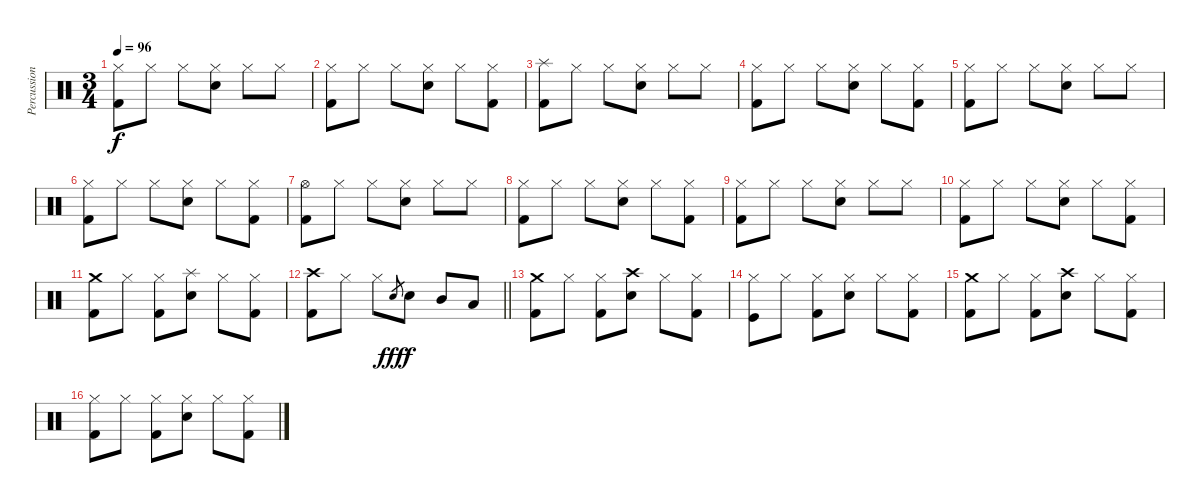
\track ("Percussion" "Percussion") {instrument percussion}
\staff {score}
\articulation defaults
\ts (3 4)
\tempo 96
\clef neutral
\ks c
("Hi-Hat (closed)" "Kick (hit) 2").8{dy f} "Hi-Hat (closed)".8 "Hi-Hat (closed)".8 ("Hi-Hat (closed)" "Snare (hit) 2").8 "Hi-Hat (closed)".8 "Hi-Hat (closed)".8 |
("Hi-Hat (closed)" "Kick (hit) 2").8 "Hi-Hat (closed)".8 "Hi-Hat (closed)".8 ("Hi-Hat (closed)" "Snare (hit) 2").8 "Hi-Hat (closed)".8 ("Hi-Hat (closed)" "Kick (hit) 2").8 |
("Splash (hit)" "Kick (hit) 2").8 "Hi-Hat (closed)".8 "Hi-Hat (closed)".8 ("Hi-Hat (closed)" "Snare (hit) 2").8 "Hi-Hat (closed)".8 "Hi-Hat (closed)".8 |
("Hi-Hat (closed)" "Kick (hit) 2").8 "Hi-Hat (closed)".8 "Hi-Hat (closed)".8 ("Hi-Hat (closed)" "Snare (hit) 2").8 "Hi-Hat (closed)".8 ("Hi-Hat (closed)" "Kick (hit) 2").8 |
("Hi-Hat (closed)" "Kick (hit) 2").8 "Hi-Hat (closed)".8 "Hi-Hat (closed)".8 ("Hi-Hat (closed)" "Snare (hit) 2").8 "Hi-Hat (closed)".8 "Hi-Hat (closed)".8 |
("Hi-Hat (closed)" "Kick (hit) 2").8 "Hi-Hat (closed)".8 "Hi-Hat (closed)".8 ("Hi-Hat (closed)" "Snare (hit) 2").8 "Hi-Hat (closed)".8 ("Hi-Hat (closed)" "Kick (hit) 2").8 |
("Hi-Hat (open)" "Kick (hit) 2").8 "Hi-Hat (closed)".8 "Hi-Hat (closed)".8 ("Hi-Hat (closed)" "Snare (hit) 2").8 "Hi-Hat (closed)".8 "Hi-Hat (closed)".8 |
("Hi-Hat (closed)" "Kick (hit) 2").8 "Hi-Hat (closed)".8 "Hi-Hat (closed)".8 ("Hi-Hat (closed)" "Snare (hit) 2").8 "Hi-Hat (closed)".8 ("Hi-Hat (closed)" "Kick (hit) 2").8 |
("Hi-Hat (closed)" "Kick (hit) 2").8 "Hi-Hat (closed)".8 "Hi-Hat (closed)".8 ("Hi-Hat (closed)" "Snare (hit) 2").8 "Hi-Hat (closed)".8 "Hi-Hat (closed)".8 |
("Hi-Hat (closed)" "Kick (hit) 2").8 "Hi-Hat (closed)".8 "Hi-Hat (closed)".8 ("Hi-Hat (closed)" "Snare (hit) 2").8 "Hi-Hat (closed)".8 ("Hi-Hat (closed)" "Kick (hit) 2").8 |
("Crash medium (hit)" "Kick (hit) 2").8 "Hi-Hat (closed)".8 ("Hi-Hat (closed)" "Kick (hit) 2").8 ("Splash (hit)" "Snare (hit) 2").8 "Hi-Hat (closed)".8 ("Hi-Hat (closed)" "Kick (hit) 2").8 |
\barLineRight lightlight
("Crash high (hit)" "Kick (hit) 2").8 "Hi-Hat (closed)".8 "Hi-Hat (closed)".8 "Snare (hit) 2".8{gr dy fff} "Snare (hit) 2".8{dy f} "Mid Tom (hit)".8 "Low Tom (hit)".8 |
("Crash medium (hit)" "Kick (hit) 2").8 "Hi-Hat (closed)".8 ("Hi-Hat (closed)" "Kick (hit) 2").8 ("Crash high (hit)" "Snare (hit) 2").8 "Hi-Hat (closed)".8 ("Hi-Hat (closed)" "Kick (hit) 2").8 |
("Hi-Hat (closed)" "Kick (hit)").8 "Hi-Hat (closed)".8 ("Hi-Hat (closed)" "Kick (hit) 2").8 ("Hi-Hat (closed)" "Snare (hit) 2").8 "Hi-Hat (closed)".8 ("Hi-Hat (closed)" "Kick (hit) 2").8 |
("Crash medium (hit)" "Kick (hit) 2").8 "Hi-Hat (closed)".8 ("Hi-Hat (closed)" "Kick (hit) 2").8 ("Crash high (hit)" "Snare (hit) 2").8 "Hi-Hat (closed)".8 ("Hi-Hat (closed)" "Kick (hit) 2").8 |
("Hi-Hat (closed)" "Kick (hit) 2").8 "Hi-Hat (closed)".8 ("Hi-Hat (closed)" "Kick (hit) 2").8 ("Hi-Hat (closed)" "Snare (hit) 2").8 "Hi-Hat (closed)".8 ("Hi-Hat (closed)" "Kick (hit) 2").8
